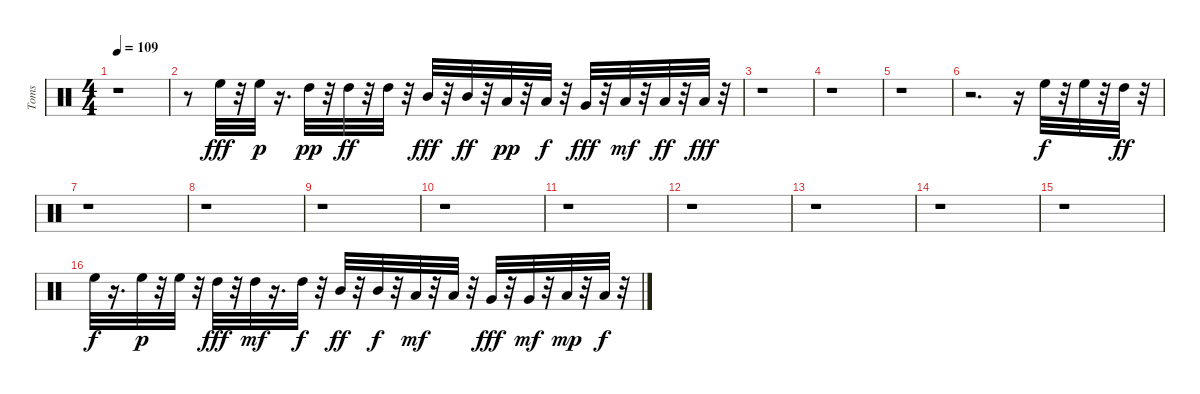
\track ("Toms" "Toms") {instrument percussion}
\staff {score}
\articulation defaults
\ts (4 4)
\tempo 109
\clef neutral
\ks c
r.1{dy fff} |
r.8 "High Floor Tom (hit)".32 r.32 "High Floor Tom (hit)".32{dy p} r.16{d} "High Tom (hit)".32{dy pp} r.32 "High Tom (hit)".32{dy ff} r.32 "High Tom (hit)".32 r.32 "Mid Tom (hit)".32{dy fff} r.32 "Mid Tom (hit)".32{dy ff} r.32 "Low Tom (hit)".32{dy pp} r.32 "Low Tom (hit)".32{dy f} r.32 "Very Low Tom (hit)".32{dy fff} r.32 "Low Floor Tom (hit)".32{dy mf} r.32 "Low Floor Tom (hit)".32{dy ff} r.32 "Low Floor Tom (hit)".32{dy fff} r.32 |
r.1 |
r.1 |
r.1 |
r.2{d} r.16 "High Floor Tom (hit)".32{dy f} r.32 "High Floor Tom (hit)".32 r.32 "High Tom (hit)".32{dy ff} r.32 |
r.1 |
r.1 |
r.1 |
r.1 |
r.1 |
r.1 |
r.1 |
r.1 |
r.1 |
"High Floor Tom (hit)".32{dy f} r.16{d} "High Floor Tom (hit)".32{dy p} r.32 "High Floor Tom (hit)".32 r.32 "High Tom (hit)".32{dy fff} r.32 "High Tom (hit)".32{dy mf} r.16{d} "High Tom (hit)".32{dy f} r.32 "Mid Tom (hit)".32{dy ff} r.32 "Mid Tom (hit)".32{dy f} r.32 "Low Tom (hit)".32{dy mf} r.32 "Low Tom (hit)".32 r.32 "Very Low Tom (hit)".32{dy fff} r.32 "Very Low Tom (hit)".32{dy mf} r.32 "Low Floor Tom (hit)".32{dy mp} r.32 "Low Floor Tom (hit)".32{dy f} r.32
